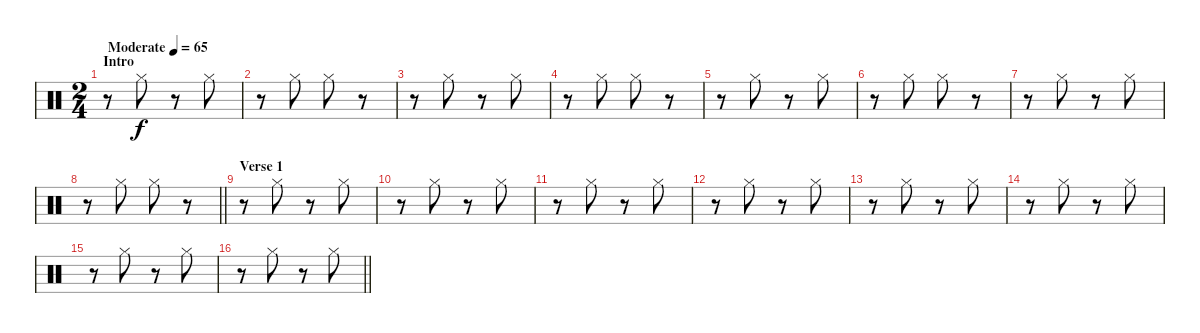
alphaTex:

\track "" {instrument percussion}
\staff {score}
\articulation defaults
\ts (2 4)
\section ("" "Intro")
\tempo (65 "Moderate")
\clef neutral
\ks c
r.8{dy f} "Hi-Hat (closed)".8 r.8 "Hi-Hat (closed)".8 |
r.8 "Hi-Hat (closed)".8 "Hi-Hat (closed)".8 r.8 |
r.8 "Hi-Hat (closed)".8 r.8 "Hi-Hat (closed)".8 |
r.8 "Hi-Hat (closed)".8 "Hi-Hat (closed)".8 r.8 |
r.8{txt ""} "Hi-Hat (closed)".8 r.8 "Hi-Hat (closed)".8 |
r.8 "Hi-Hat (closed)".8 "Hi-Hat (closed)".8 r.8 |
r.8 "Hi-Hat (closed)".8 r.8 "Hi-Hat (closed)".8 |
\barLineRight lightlight
r.8 "Hi-Hat (closed)".8 "Hi-Hat (closed)".8 r.8 |
\section ("" "Verse 1")
r.8 "Hi-Hat (closed)".8 r.8 "Hi-Hat (closed)".8 |
r.8 "Hi-Hat (closed)".8 r.8 "Hi-Hat (closed)".8 |
r.8 "Hi-Hat (closed)".8 r.8 "Hi-Hat (closed)".8 |
r.8 "Hi-Hat (closed)".8 r.8 "Hi-Hat (closed)".8 |
r.8 "Hi-Hat (closed)".8 r.8 "Hi-Hat (closed)".8 |
r.8 "Hi-Hat (closed)".8 r.8 "Hi-Hat (closed)".8 |
r.8 "Hi-Hat (closed)".8 r.8 "Hi-Hat (closed)".8 |
\barLineRight lightlight
r.8 "Hi-Hat (closed)".8 r.8 "Hi-Hat (closed)".8
